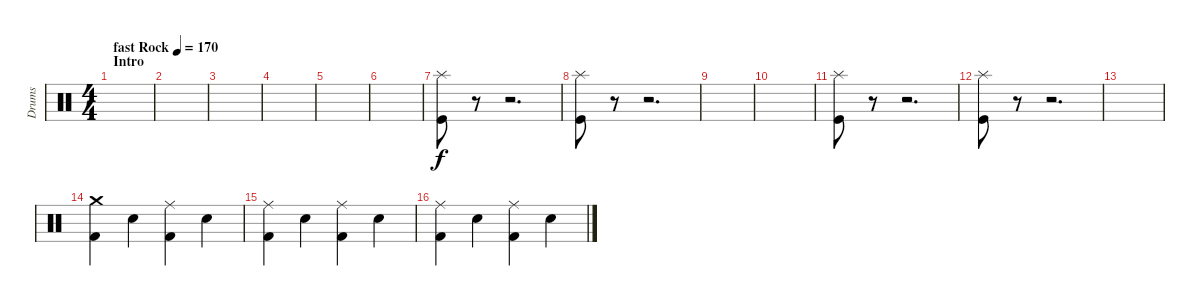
\track ("Drums" "Drums") {instrument percussion}
\staff {score}
\articulation defaults
\ts (4 4)
\section ("" "Intro ")
\tempo (170 "fast Rock")
\clef neutral
\ks c
|
|
|
|
|
|
("Kick (hit)" "Splash (hit)").8 r.8 r.2{d} |
("Kick (hit)" "Splash (hit)").8 r.8 r.2{d} |
|
|
("Kick (hit)" "Splash (hit)").8 r.8 r.2{d} |
("Kick (hit)" "Splash (hit)").8 r.8 r.2{d} |
|
("Crash medium (hit)" "Kick (hit) 2").4 "Electric Snare (hit)".4 ("Ride (middle)" "Kick (hit) 2").4 "Electric Snare (hit)".4 |
("Ride (middle)" "Kick (hit) 2").4 "Electric Snare (hit)".4 ("Ride (middle)" "Kick (hit) 2").4 "Electric Snare (hit)".4 |
("Ride (middle)" "Kick (hit) 2").4 "Electric Snare (hit)".4 ("Ride (middle)" "Kick (hit) 2").4 "Electric Snare (hit)".4
